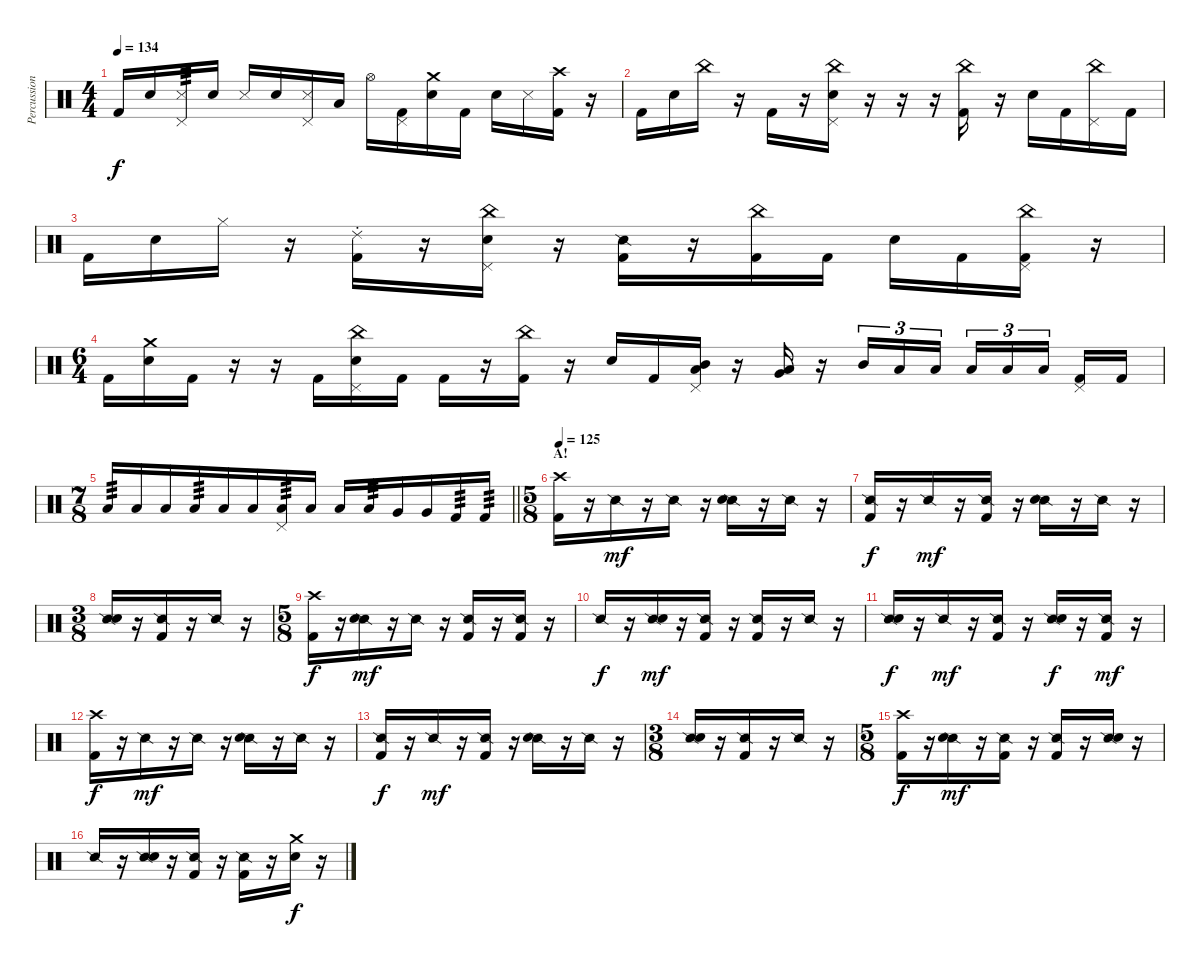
\track ("Percussion" "Percussion") {instrument percussion}
\staff {score}
\articulation defaults
\ts (4 4)
\tempo 134
\clef neutral
\ks c "Kick (hit) 2".16{dy f} "Snare (hit) 2".16
("Pedal Hi-Hat (hit)" "Metronome (hit)").16{tp 3} "Snare (hit) 2".16 "Metronome (hit)".16 "Snare (hit) 2".16 ("Pedal Hi-Hat (hit)" "Metronome (hit)").16 "Low Tom (hit)".16 "Hi-Hat (open)".16 ("Pedal Hi-Hat (hit)" "Kick (hit) 2").16 ("Crash medium (hit)" "Snare (hit) 2").16 "Kick (hit) 2".16 "Snare (hit) 2".16 "Metronome (hit)".16 ("Crash high (hit)" "Kick (hit) 2").16 r.16 |
"Kick (hit) 2".16 "Snare (hit) 2".16 "China (hit)".16 r.16 "Kick (hit) 2".16 r.16 ("China (hit)" "Pedal Hi-Hat (hit)" "Snare (hit) 2").16 r.16 r.16 r.16 ("China (hit)" "Kick (hit) 2").16 r.16 "Snare (hit) 2".16 "Kick (hit) 2".16 ("China (hit)" "Pedal Hi-Hat (hit)").16 "Kick (hit) 2".16 |
"Kick (hit) 2".16 "Snare (hit) 2".16 "Hi-Hat (closed)".16 r.16 ("Ride (choke) 2" "Kick (hit) 2").16 r.16 ("China (hit)" "Pedal Hi-Hat (hit)" "Snare (hit) 2").16 r.16 ("Snare (side stick) 2" "Kick (hit) 2").16 r.16 ("China (hit)" "Kick (hit) 2").16 "Kick (hit) 2".16 "Snare (hit) 2".16 "Kick (hit) 2".16 ("China (hit)" "Pedal Hi-Hat (hit)" "Kick (hit) 2").16 r.16 |
\ts (6 4)
"Kick (hit) 2".16 ("Crash medium (hit)" "Snare (hit) 2").16 "Kick (hit) 2".16 r.16 r.16 "Kick (hit) 2".16 ("China (hit)" "Pedal Hi-Hat (hit)" "Snare (hit) 2").16 "Kick (hit) 2".16 "Kick (hit) 2".16 r.16 ("China (hit)" "Kick (hit) 2").16 r.16 "Snare (hit) 2".16 "Kick (hit) 2".16 ("Pedal Hi-Hat (hit)" "Mid Tom (hit)" "Low Tom (hit)").16 r.16 ("Low Tom (hit)" "Very Low Tom (hit)").16 r.16 "Mid Tom (hit)".16{tu (3 2)} "Low Tom (hit)".16{tu (3 2)} "Low Floor Tom (hit)".16{tu (3 2) beam splitsecondary} "Low Floor Tom (hit)".16{tu (3 2)} "Low Floor Tom (hit)".16{tu (3 2)} "Low Floor Tom (hit)".16{tu (3 2) beam splitsecondary} ("Pedal Hi-Hat (hit)" "Kick (hit) 2").16 "Kick (hit) 2".16 |
\ts (7 8)
\barLineRight lightlight "Low Tom (hit)".16{tp 3} "Low Tom (hit)".16 "Low Tom (hit)".16 "Low Tom (hit)".16{tp 3} "Low Tom (hit)".16 "Low Tom (hit)".16
("Pedal Hi-Hat (hit)" "Low Tom (hit)").16{tp 3} "Low Tom (hit)".16 "Low Tom (hit)".16 "Low Tom (hit)".16{tp 3} "Very Low Tom (hit)".16 "Very Low Tom (hit)".16 "Kick (hit) 2".16{tp 3} "Kick (hit) 2".16{tp 3} |
\ts (5 8)
\section ("" "A!")
\tempo 125
("Crash high (hit)" "Kick (hit) 2").16 r.16 "Snare (side stick) 2".16{dy mf} r.16 "Snare (side stick) 2".16 r.16 ("Snare (side stick) 2" "Snare (hit) 2").16 r.16 "Snare (side stick) 2".16 r.16 |
("Snare (side stick) 2" "Kick (hit) 2").16{dy f} r.16 "Snare (side stick) 2".16{dy mf} r.16 ("Snare (side stick) 2" "Kick (hit) 2").16 r.16 ("Snare (side stick) 2" "Snare (hit) 2").16 r.16 "Snare (side stick) 2".16 r.16 |
\ts (3 8)
("Snare (side stick) 2" "Snare (hit) 2").16 r.16 ("Snare (side stick) 2" "Kick (hit) 2").16 r.16 "Snare (side stick) 2".16 r.16 |
\ts (5 8)
("Crash high (hit)" "Kick (hit) 2").16{dy f} r.16 ("Snare (side stick) 2" "Snare (hit) 2").16{dy mf} r.16 "Snare (side stick) 2".16 r.16 ("Snare (side stick) 2" "Kick (hit) 2").16 r.16 ("Snare (side stick) 2" "Kick (hit) 2").16 r.16 |
"Snare (side stick) 2".16{dy f} r.16 ("Snare (side stick) 2" "Snare (hit) 2").16{dy mf} r.16 ("Snare (side stick) 2" "Kick (hit) 2").16 r.16 ("Snare (side stick) 2" "Kick (hit) 2").16 r.16 "Snare (side stick) 2".16 r.16 |
("Snare (side stick) 2" "Snare (hit) 2").16{dy f} r.16 "Snare (side stick) 2".16{dy mf} r.16 ("Snare (side stick) 2" "Kick (hit) 2").16 r.16 ("Snare (side stick) 2" "Snare (hit) 2").16{dy f} r.16 ("Snare (side stick) 2" "Kick (hit) 2").16{dy mf} r.16 |
("Crash high (hit)" "Kick (hit) 2").16{dy f} r.16 "Snare (side stick) 2".16{dy mf} r.16 "Snare (side stick) 2".16 r.16 ("Snare (side stick) 2" "Snare (hit) 2").16 r.16 "Snare (side stick) 2".16 r.16 |
("Snare (side stick) 2" "Kick (hit) 2").16{dy f} r.16 "Snare (side stick) 2".16{dy mf} r.16 ("Snare (side stick) 2" "Kick (hit) 2").16 r.16 ("Snare (side stick) 2" "Snare (hit) 2").16 r.16 "Snare (side stick) 2".16 r.16 |
\ts (3 8)
("Snare (side stick) 2" "Snare (hit) 2").16 r.16 ("Snare (side stick) 2" "Kick (hit) 2").16 r.16 "Snare (side stick) 2".16 r.16 |
\ts (5 8)
("Crash high (hit)" "Kick (hit) 2").16{dy f} r.16 ("Snare (side stick) 2" "Snare (hit) 2").16{dy mf} r.16 ("Snare (side stick) 2" "Kick (hit) 2").16 r.16 ("Snare (side stick) 2" "Kick (hit) 2").16 r.16 ("Snare (side stick) 2" "Snare (hit) 2").16 r.16 |
"Snare (side stick) 2".16 r.16 ("Snare (side stick) 2" "Snare (hit) 2").16 r.16 ("Snare (side stick) 2" "Kick (hit) 2").16 r.16 ("Snare (side stick) 2" "Kick (hit) 2").16 r.16 ("Crash medium (hit)" "Snare (hit) 2").16{dy f} r.16
